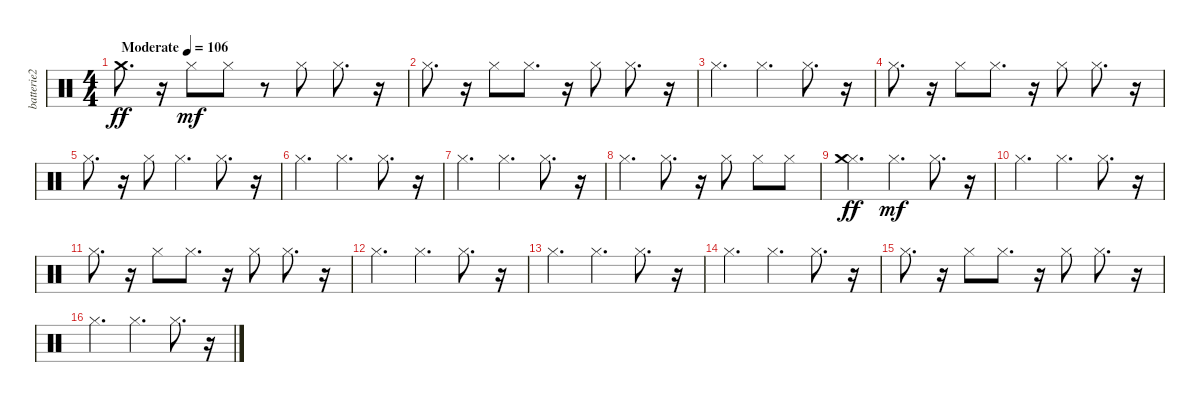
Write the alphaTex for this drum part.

\track ("batterie2" "batterie2") {instrument percussion}
\staff {score}
\articulation defaults
\ts (4 4)
\tempo (106 "Moderate")
\clef neutral
\ks c "Crash medium (hit)".8{d dy ff}
r.16 "Hi-Hat (closed)".8{dy mf} "Hi-Hat (closed)".8 r.8 "Hi-Hat (closed)".8 "Hi-Hat (closed)".8{d} r.16 |
"Hi-Hat (closed)".8{d} r.16 "Hi-Hat (closed)".8 "Hi-Hat (closed)".8{d} r.16 "Hi-Hat (closed)".8 "Hi-Hat (closed)".8{d} r.16 |
"Hi-Hat (closed)".4{d} "Hi-Hat (closed)".4{d} "Hi-Hat (closed)".8{d} r.16 |
"Hi-Hat (closed)".8{d} r.16 "Hi-Hat (closed)".8 "Hi-Hat (closed)".8{d} r.16 "Hi-Hat (closed)".8 "Hi-Hat (closed)".8{d} r.16 |
"Hi-Hat (closed)".8{d} r.16 "Hi-Hat (closed)".8 "Hi-Hat (closed)".4{d} "Hi-Hat (closed)".8{d} r.16 |
"Hi-Hat (closed)".4{d} "Hi-Hat (closed)".4{d} "Hi-Hat (closed)".8{d} r.16 |
"Hi-Hat (closed)".4{d} "Hi-Hat (closed)".4{d} "Hi-Hat (closed)".8{d} r.16 |
"Hi-Hat (closed)".4{d} "Hi-Hat (closed)".8{d} r.16 "Hi-Hat (closed)".8 "Hi-Hat (closed)".8 "Hi-Hat (closed)".8 |
("Hi-Hat (closed)" "Crash medium (hit)").4{d dy ff} "Hi-Hat (closed)".4{d dy mf} "Hi-Hat (closed)".8{d} r.16 |
"Hi-Hat (closed)".4{d} "Hi-Hat (closed)".4{d} "Hi-Hat (closed)".8{d} r.16 |
"Hi-Hat (closed)".8{d} r.16 "Hi-Hat (closed)".8 "Hi-Hat (closed)".8{d} r.16 "Hi-Hat (closed)".8 "Hi-Hat (closed)".8{d} r.16 |
"Hi-Hat (closed)".4{d} "Hi-Hat (closed)".4{d} "Hi-Hat (closed)".8{d} r.16 |
"Hi-Hat (closed)".4{d} "Hi-Hat (closed)".4{d} "Hi-Hat (closed)".8{d} r.16 |
"Hi-Hat (closed)".4{d} "Hi-Hat (closed)".4{d} "Hi-Hat (closed)".8{d} r.16 |
"Hi-Hat (closed)".8{d} r.16 "Hi-Hat (closed)".8 "Hi-Hat (closed)".8{d} r.16 "Hi-Hat (closed)".8 "Hi-Hat (closed)".8{d} r.16 |
"Hi-Hat (closed)".4{d} "Hi-Hat (closed)".4{d} "Hi-Hat (closed)".8{d} r.16
